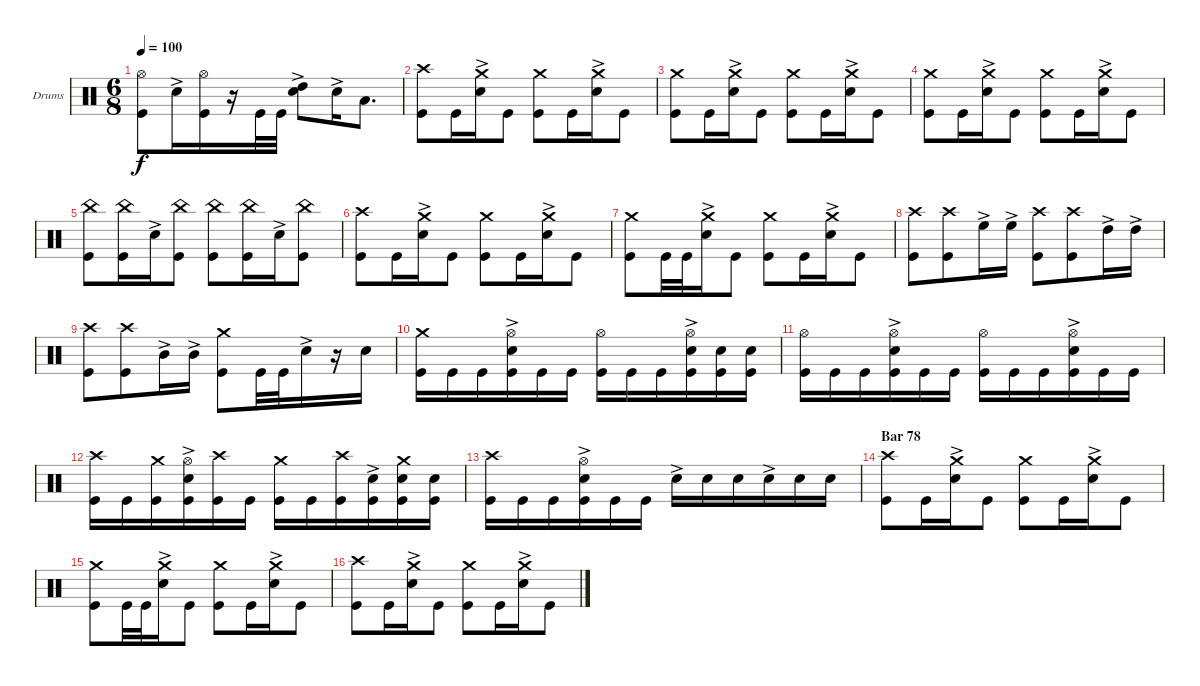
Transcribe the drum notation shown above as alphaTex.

\bracketExtendMode groupsimilarinstruments
\firstSystemTrackNameOrientation horizontal
\otherSystemsTrackNameOrientation horizontal
\track ("Drumkit" "Drums") {instrument percussion}
\staff {score}
\articulation defaults
\ts (6 8)
\tempo 100
\clef neutral
\ks c
("Kick (hit)" "Hi-Hat (open)").8{dy f} "Snare (hit) 2"{ac}.16 ("Kick (hit)" "Hi-Hat (open)").16 r.16 "Kick (hit)".32 "Kick (hit)".32 ("Snare (hit) 2"{ac} "High Tom (hit)").8 "Snare (hit) 2"{ac}.16 "Low Tom (hit)".8{d} |
("Kick (hit)" "Crash high (hit)").8 "Kick (hit)".16 ("Snare (hit) 2"{ac} "Crash medium (hit)").16 "Kick (hit)".8 ("Kick (hit)" "Crash medium (hit)").8 "Kick (hit)".16 ("Snare (hit) 2"{ac} "Crash medium (hit)").16 "Kick (hit)".8 |
("Kick (hit)" "Crash medium (hit)").8 "Kick (hit)".16 ("Snare (hit) 2"{ac} "Crash medium (hit)").16 "Kick (hit)".8 ("Kick (hit)" "Crash medium (hit)").8 "Kick (hit)".16 ("Snare (hit) 2"{ac} "Crash medium (hit)").16 "Kick (hit)".8 |
("Kick (hit)" "Crash medium (hit)").8 "Kick (hit)".16 ("Snare (hit) 2"{ac} "Crash medium (hit)").16 "Kick (hit)".8 ("Kick (hit)" "Crash medium (hit)").8 "Kick (hit)".16 ("Snare (hit) 2"{ac} "Crash medium (hit)").16 "Kick (hit)".8 |
("Kick (hit)" "China (hit)").8 ("Kick (hit)" "China (hit)").16 "Snare (hit) 2"{ac}.16 ("Kick (hit)" "China (hit)").8 ("Kick (hit)" "China (hit)").8 ("Kick (hit)" "China (hit)").16 "Snare (hit) 2"{ac}.16 ("Kick (hit)" "China (hit)").8 |
("Kick (hit)" "Crash high (hit)").8 "Kick (hit)".16 ("Snare (hit) 2"{ac} "Crash medium (hit)").16 "Kick (hit)".8 ("Kick (hit)" "Crash medium (hit)").8 "Kick (hit)".16 ("Snare (hit) 2"{ac} "Crash medium (hit)").16 "Kick (hit)".8 |
("Kick (hit)" "Crash medium (hit)").8 "Kick (hit)".32 "Kick (hit)".32 ("Snare (hit) 2"{ac} "Crash medium (hit)").16 "Kick (hit)".8 ("Kick (hit)" "Crash medium (hit)").8 "Kick (hit)".16 ("Snare (hit) 2"{ac} "Crash medium (hit)").16 "Kick (hit)".8 |
("Kick (hit)" "Crash high (hit)").8 ("Kick (hit)" "Crash high (hit)").8 "High Floor Tom (hit)"{ac}.16 "High Floor Tom (hit)"{ac}.16 ("Kick (hit)" "Crash high (hit)").8 ("Kick (hit)" "Crash high (hit)").8 "High Tom (hit)"{ac}.16 "High Tom (hit)"{ac}.16 |
("Kick (hit)" "Crash high (hit)").8 ("Kick (hit)" "Crash high (hit)").8 "Mid Tom (hit)"{ac}.16 "Mid Tom (hit)"{ac}.16 ("Kick (hit)" "Crash medium (hit)").8 "Kick (hit)".32 "Kick (hit)".32 "Snare (hit) 2"{ac}.16 r.16 "Snare (hit) 2".16 |
("Kick (hit)" "Crash medium (hit)").16 "Kick (hit)".16 "Kick (hit)".16 ("Kick (hit)" "Hi-Hat (open)" "Snare (hit) 2"{ac}).16 "Kick (hit)".16 "Kick (hit)".16 ("Kick (hit)" "Hi-Hat (open)").16 "Kick (hit)".16 "Kick (hit)".16 ("Kick (hit)" "Hi-Hat (open)" "Snare (hit) 2"{ac}).16 ("Kick (hit)" "Snare (hit) 2").16 ("Kick (hit)" "Snare (hit) 2").16 |
("Kick (hit)" "Hi-Hat (open)").16 "Kick (hit)".16 "Kick (hit)".16 ("Kick (hit)" "Hi-Hat (open)" "Snare (hit) 2"{ac}).16 "Kick (hit)".16 "Kick (hit)".16 ("Kick (hit)" "Hi-Hat (open)").16 "Kick (hit)".16 "Kick (hit)".16 ("Kick (hit)" "Hi-Hat (open)" "Snare (hit) 2"{ac}).16 "Kick (hit)".16 "Kick (hit)".16 |
("Kick (hit)" "Crash high (hit)").16 "Kick (hit)".16 ("Kick (hit)" "Crash medium (hit)").16 ("Kick (hit)" "Hi-Hat (open)" "Snare (hit) 2"{ac}).16 ("Kick (hit)" "Crash high (hit)").16 "Kick (hit)".16 ("Kick (hit)" "Crash medium (hit)").16 "Kick (hit)".16 ("Kick (hit)" "Crash high (hit)").16 ("Kick (hit)" "Snare (hit) 2"{ac}).16 ("Kick (hit)" "Snare (hit) 2" "Crash medium (hit)").16 ("Kick (hit)" "Snare (hit) 2").16 |
("Kick (hit)" "Crash high (hit)").16 "Kick (hit)".16 "Kick (hit)".16 ("Kick (hit)" "Hi-Hat (open)" "Snare (hit) 2"{ac}).16 "Kick (hit)".16 "Kick (hit)".16 "Snare (hit) 2"{ac}.16 "Snare (hit) 2".16 "Snare (hit) 2".16 "Snare (hit) 2"{ac}.16 "Snare (hit) 2".16 "Snare (hit) 2".16 |
\section ("" "Bar 78")
("Kick (hit)" "Crash high (hit)").8 "Kick (hit)".16 ("Snare (hit) 2"{ac} "Crash medium (hit)").16 "Kick (hit)".8 ("Kick (hit)" "Crash medium (hit)").8 "Kick (hit)".16 ("Snare (hit) 2"{ac} "Crash medium (hit)").16 "Kick (hit)".8 |
("Kick (hit)" "Crash medium (hit)").8 "Kick (hit)".32 "Kick (hit)".32 ("Snare (hit) 2"{ac} "Crash medium (hit)").16 "Kick (hit)".8 ("Kick (hit)" "Crash medium (hit)").8 "Kick (hit)".16 ("Snare (hit) 2"{ac} "Crash medium (hit)").16 "Kick (hit)".8 |
("Kick (hit)" "Crash high (hit)").8 "Kick (hit)".16 ("Snare (hit) 2"{ac} "Crash medium (hit)").16 "Kick (hit)".8 ("Kick (hit)" "Crash medium (hit)").8 "Kick (hit)".16 ("Snare (hit) 2"{ac} "Crash medium (hit)").16 "Kick (hit)".8
